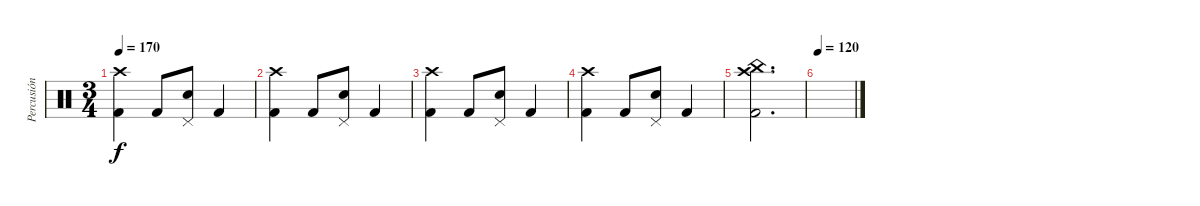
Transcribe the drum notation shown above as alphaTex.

\track ("Percusión" "Percusión") {instrument percussion}
\staff {score}
\articulation defaults
\ts (3 4)
\tempo 170
\clef neutral
\ks c
("Crash high (hit)" "Kick (hit) 2").4{dy f} "Kick (hit) 2".8 ("Pedal Hi-Hat (hit)" "Snare (hit) 2").8 "Kick (hit) 2".4 |
("Crash high (hit)" "Kick (hit) 2").4 "Kick (hit) 2".8 ("Pedal Hi-Hat (hit)" "Snare (hit) 2").8 "Kick (hit) 2".4 |
("Crash high (hit)" "Kick (hit) 2").4 "Kick (hit) 2".8 ("Pedal Hi-Hat (hit)" "Snare (hit) 2").8 "Kick (hit) 2".4 |
("Crash high (hit)" "Kick (hit) 2").4 "Kick (hit) 2".8 ("Pedal Hi-Hat (hit)" "Snare (hit) 2").8 "Kick (hit) 2".4 |
("Crash high (hit)" "China (hit)" "Kick (hit) 2").2{d} |
\tempo 120
